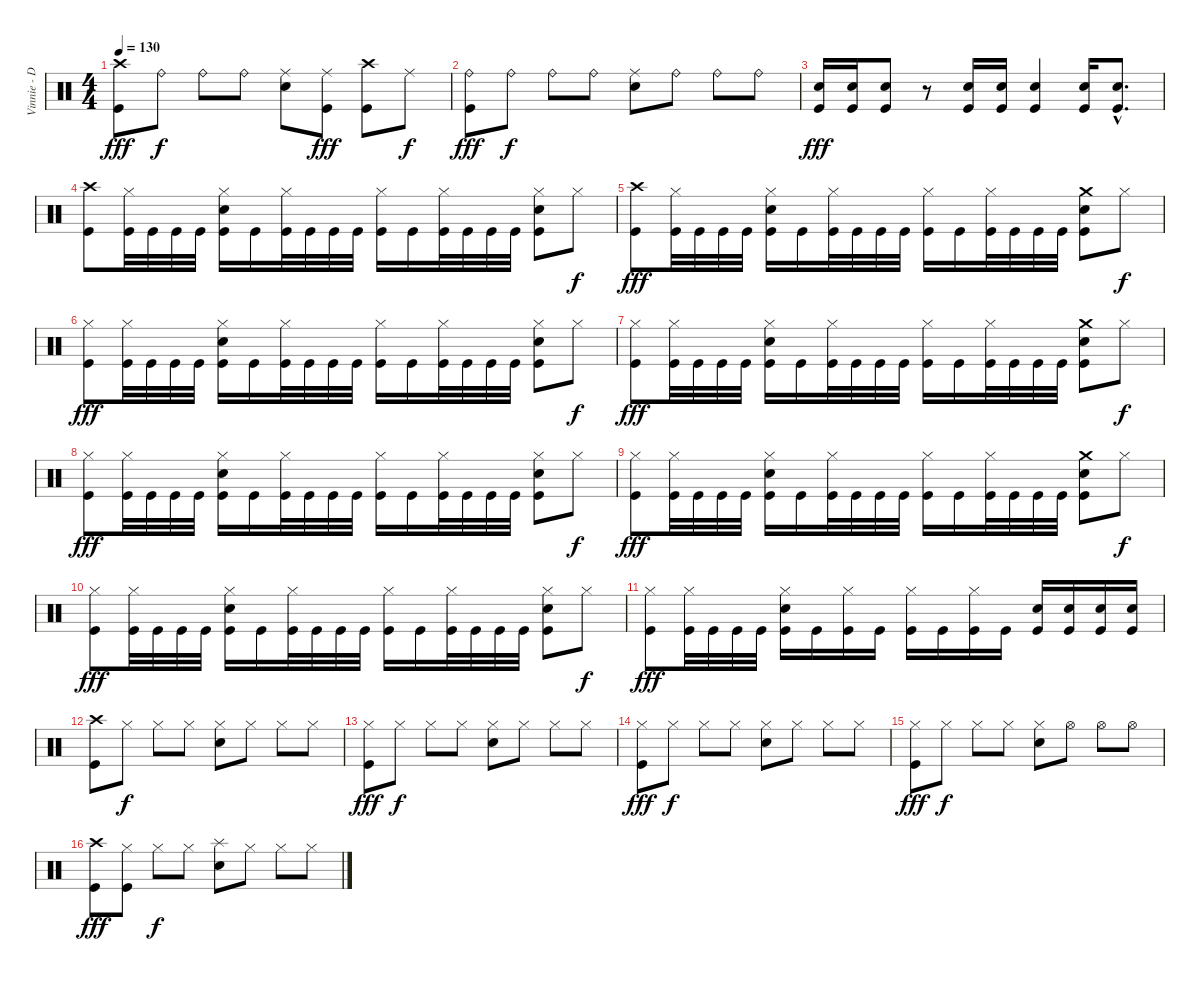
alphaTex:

\track ("Vinnie - Drums" "Vinnie - D") {instrument percussion}
\staff {score}
\articulation defaults
\ts (4 4)
\tempo 130
\clef neutral
\ks c
("Crash high (hit)" "Kick (hit)").8{dy fff} "Ride (bell)".8{dy f} "Ride (bell)".8 "Ride (bell)".8 ("Ride (middle)" "Electric Snare (hit)").8 ("Ride (middle)" "Kick (hit)").8{dy fff} ("Crash high (hit)" "Kick (hit)").8 "Ride (middle)".8{dy f} |
("Ride (bell)" "Kick (hit)").8{dy fff} "Ride (bell)".8{dy f} "Ride (bell)".8 "Ride (bell)".8 ("Ride (middle)" "Electric Snare (hit)").8 "Ride (bell)".8 "Ride (bell)".8 "Ride (bell)".8 |
("Electric Snare (hit)" "Kick (hit)").16{dy fff} ("Electric Snare (hit)" "Kick (hit)").16 ("Electric Snare (hit)" "Kick (hit)").8 r.8 ("Electric Snare (hit)" "Kick (hit)").16 ("Electric Snare (hit)" "Kick (hit)").16 ("Electric Snare (hit)" "Kick (hit)").4 ("Electric Snare (hit)" "Kick (hit)").16 ("Electric Snare (hit)"{hac} "Kick (hit)"{hac}).8{d} |
("Crash high (hit)" "Kick (hit)").8 ("Hi-Hat (closed)" "Kick (hit)").32 "Kick (hit)".32 "Kick (hit)".32 "Kick (hit)".32 ("Hi-Hat (closed)" "Electric Snare (hit)" "Kick (hit)").16 "Kick (hit)".16 ("Hi-Hat (closed)" "Kick (hit)").32 "Kick (hit)".32 "Kick (hit)".32 "Kick (hit)".32 ("Hi-Hat (closed)" "Kick (hit)").16 "Kick (hit)".16 ("Hi-Hat (closed)" "Kick (hit)").32 "Kick (hit)".32 "Kick (hit)".32 "Kick (hit)".32 ("Hi-Hat (closed)" "Electric Snare (hit)" "Kick (hit)").8 "Hi-Hat (closed)".8{dy f} |
("Crash high (hit)" "Kick (hit)").8{dy fff} ("Hi-Hat (closed)" "Kick (hit)").32 "Kick (hit)".32 "Kick (hit)".32 "Kick (hit)".32 ("Hi-Hat (closed)" "Electric Snare (hit)" "Kick (hit)").16 "Kick (hit)".16 ("Hi-Hat (closed)" "Kick (hit)").32 "Kick (hit)".32 "Kick (hit)".32 "Kick (hit)".32 ("Hi-Hat (closed)" "Kick (hit)").16 "Kick (hit)".16 ("Hi-Hat (closed)" "Kick (hit)").32 "Kick (hit)".32 "Kick (hit)".32 "Kick (hit)".32 ("Crash medium (hit)" "Electric Snare (hit)" "Kick (hit)").8 "Hi-Hat (closed)".8{dy f} |
("Hi-Hat (closed)" "Kick (hit)").8{dy fff} ("Hi-Hat (closed)" "Kick (hit)").32 "Kick (hit)".32 "Kick (hit)".32 "Kick (hit)".32 ("Hi-Hat (closed)" "Electric Snare (hit)" "Kick (hit)").16 "Kick (hit)".16 ("Hi-Hat (closed)" "Kick (hit)").32 "Kick (hit)".32 "Kick (hit)".32 "Kick (hit)".32 ("Hi-Hat (closed)" "Kick (hit)").16 "Kick (hit)".16 ("Hi-Hat (closed)" "Kick (hit)").32 "Kick (hit)".32 "Kick (hit)".32 "Kick (hit)".32 ("Hi-Hat (closed)" "Electric Snare (hit)" "Kick (hit)").8 "Hi-Hat (closed)".8{dy f} |
("Hi-Hat (closed)" "Kick (hit)").8{dy fff} ("Hi-Hat (closed)" "Kick (hit)").32 "Kick (hit)".32 "Kick (hit)".32 "Kick (hit)".32 ("Hi-Hat (closed)" "Electric Snare (hit)" "Kick (hit)").16 "Kick (hit)".16 ("Hi-Hat (closed)" "Kick (hit)").32 "Kick (hit)".32 "Kick (hit)".32 "Kick (hit)".32 ("Hi-Hat (closed)" "Kick (hit)").16 "Kick (hit)".16 ("Hi-Hat (closed)" "Kick (hit)").32 "Kick (hit)".32 "Kick (hit)".32 "Kick (hit)".32 ("Crash medium (hit)" "Electric Snare (hit)" "Kick (hit)").8 "Hi-Hat (closed)".8{dy f} |
("Hi-Hat (closed)" "Kick (hit)").8{dy fff} ("Hi-Hat (closed)" "Kick (hit)").32 "Kick (hit)".32 "Kick (hit)".32 "Kick (hit)".32 ("Hi-Hat (closed)" "Electric Snare (hit)" "Kick (hit)").16 "Kick (hit)".16 ("Hi-Hat (closed)" "Kick (hit)").32 "Kick (hit)".32 "Kick (hit)".32 "Kick (hit)".32 ("Hi-Hat (closed)" "Kick (hit)").16 "Kick (hit)".16 ("Hi-Hat (closed)" "Kick (hit)").32 "Kick (hit)".32 "Kick (hit)".32 "Kick (hit)".32 ("Hi-Hat (closed)" "Electric Snare (hit)" "Kick (hit)").8 "Hi-Hat (closed)".8{dy f} |
("Hi-Hat (closed)" "Kick (hit)").8{dy fff} ("Hi-Hat (closed)" "Kick (hit)").32 "Kick (hit)".32 "Kick (hit)".32 "Kick (hit)".32 ("Hi-Hat (closed)" "Electric Snare (hit)" "Kick (hit)").16 "Kick (hit)".16 ("Hi-Hat (closed)" "Kick (hit)").32 "Kick (hit)".32 "Kick (hit)".32 "Kick (hit)".32 ("Hi-Hat (closed)" "Kick (hit)").16 "Kick (hit)".16 ("Hi-Hat (closed)" "Kick (hit)").32 "Kick (hit)".32 "Kick (hit)".32 "Kick (hit)".32 ("Crash medium (hit)" "Electric Snare (hit)" "Kick (hit)").8 "Hi-Hat (closed)".8{dy f} |
("Hi-Hat (closed)" "Kick (hit)").8{dy fff} ("Hi-Hat (closed)" "Kick (hit)").32 "Kick (hit)".32 "Kick (hit)".32 "Kick (hit)".32 ("Hi-Hat (closed)" "Electric Snare (hit)" "Kick (hit)").16 "Kick (hit)".16 ("Hi-Hat (closed)" "Kick (hit)").32 "Kick (hit)".32 "Kick (hit)".32 "Kick (hit)".32 ("Hi-Hat (closed)" "Kick (hit)").16 "Kick (hit)".16 ("Hi-Hat (closed)" "Kick (hit)").32 "Kick (hit)".32 "Kick (hit)".32 "Kick (hit)".32 ("Hi-Hat (closed)" "Electric Snare (hit)" "Kick (hit)").8 "Hi-Hat (closed)".8{dy f} |
("Hi-Hat (closed)" "Kick (hit)").8{dy fff} ("Hi-Hat (closed)" "Kick (hit)").32 "Kick (hit)".32 "Kick (hit)".32 "Kick (hit)".32 ("Hi-Hat (closed)" "Electric Snare (hit)" "Kick (hit)").16 "Kick (hit)".16 ("Hi-Hat (closed)" "Kick (hit)").16 "Kick (hit)".16 ("Hi-Hat (closed)" "Kick (hit)").16 "Kick (hit)".16 ("Hi-Hat (closed)" "Kick (hit)").16 "Kick (hit)".16 ("Electric Snare (hit)" "Kick (hit)").16 ("Electric Snare (hit)" "Kick (hit)").16 ("Electric Snare (hit)" "Kick (hit)").16 ("Electric Snare (hit)" "Kick (hit)").16 |
("Crash high (hit)" "Kick (hit)").8 "Hi-Hat (closed)".8{dy f} "Hi-Hat (closed)".8 "Hi-Hat (closed)".8 ("Hi-Hat (closed)" "Electric Snare (hit)").8 "Hi-Hat (closed)".8 "Hi-Hat (closed)".8 "Hi-Hat (closed)".8 |
("Hi-Hat (closed)" "Kick (hit)").8{dy fff} "Hi-Hat (closed)".8{dy f} "Hi-Hat (closed)".8 "Hi-Hat (closed)".8 ("Hi-Hat (closed)" "Electric Snare (hit)").8 "Hi-Hat (closed)".8 "Hi-Hat (closed)".8 "Hi-Hat (closed)".8 |
("Hi-Hat (closed)" "Kick (hit)").8{dy fff} "Hi-Hat (closed)".8{dy f} "Hi-Hat (closed)".8 "Hi-Hat (closed)".8 ("Hi-Hat (closed)" "Electric Snare (hit)").8 "Hi-Hat (closed)".8 "Hi-Hat (closed)".8 "Hi-Hat (closed)".8 |
("Hi-Hat (closed)" "Kick (hit)").8{dy fff} "Hi-Hat (closed)".8{dy f} "Hi-Hat (closed)".8 "Hi-Hat (closed)".8 ("Hi-Hat (closed)" "Electric Snare (hit)").8 "Hi-Hat (open)".8 "Hi-Hat (open)".8 "Hi-Hat (open)".8 |
("Crash high (hit)" "Kick (hit)").8{dy fff} ("Hi-Hat (closed)" "Kick (hit)").8 "Hi-Hat (closed)".8{dy f} "Hi-Hat (closed)".8 ("Splash (hit)" "Electric Snare (hit)").8 "Hi-Hat (closed)".8 "Hi-Hat (closed)".8 "Hi-Hat (closed)".8
